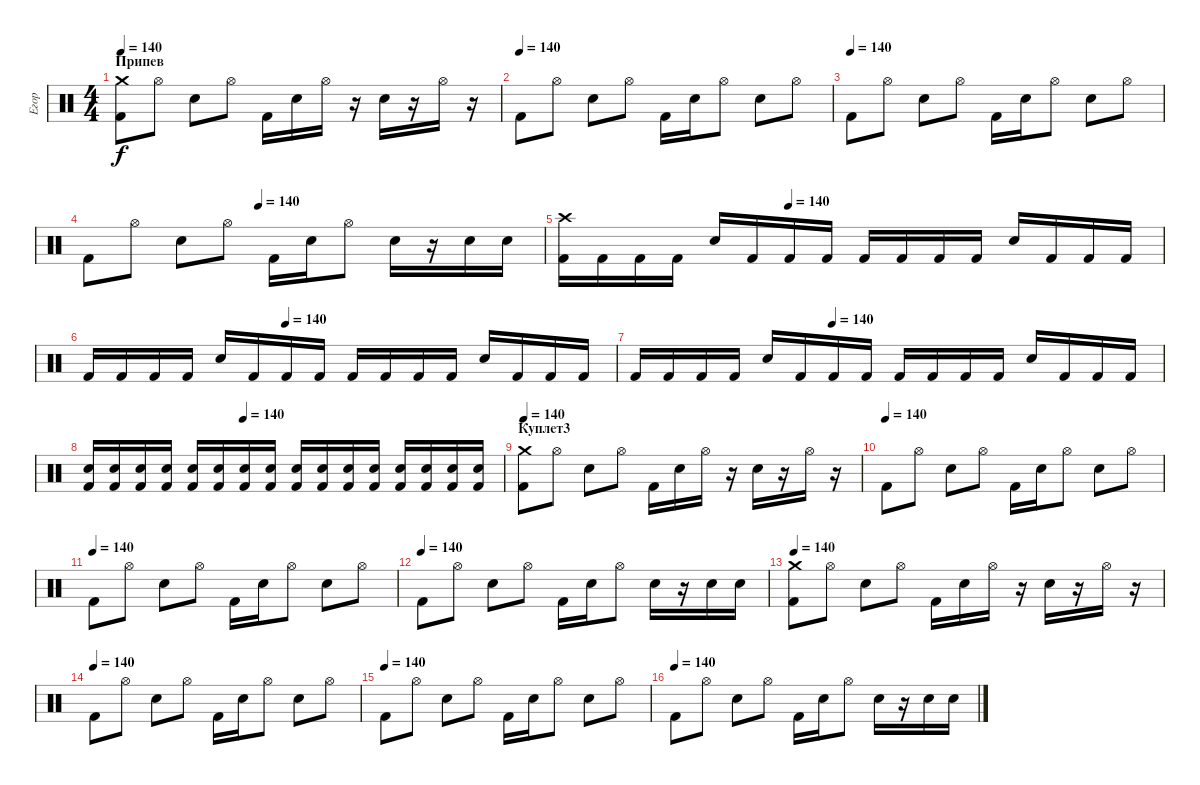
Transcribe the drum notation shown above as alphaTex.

\track ("Егор" "Егор") {instrument percussion}
\staff {score}
\articulation defaults
\ts (4 4)
\section ("" "Припев")
\tempo 140
\clef neutral
\ks c
("Crash medium (hit)" "Kick (hit) 2").8{dy f} "Hi-Hat (open)".8 "Snare (hit) 2".8 "Hi-Hat (open)".8 "Kick (hit) 2".16 "Snare (hit) 2".16 "Hi-Hat (open)".16 r.16 "Snare (hit) 2".16 r.16 "Hi-Hat (open)".16 r.16 |
\tempo (140)
"Kick (hit) 2".8 "Hi-Hat (open)".8 "Snare (hit) 2".8 "Hi-Hat (open)".8 "Kick (hit) 2".16 "Snare (hit) 2".16 "Hi-Hat (open)".8 "Snare (hit) 2".8 "Hi-Hat (open)".8 |
\tempo (140)
"Kick (hit) 2".8 "Hi-Hat (open)".8 "Snare (hit) 2".8 "Hi-Hat (open)".8 "Kick (hit) 2".16 "Snare (hit) 2".16 "Hi-Hat (open)".8 "Snare (hit) 2".8 "Hi-Hat (open)".8 |
\tempo (140 0.375)
"Kick (hit) 2".8 "Hi-Hat (open)".8 "Snare (hit) 2".8 "Hi-Hat (open)".8 "Kick (hit) 2".16 "Snare (hit) 2".16 "Hi-Hat (open)".8 "Snare (hit) 2".16 r.16 "Snare (hit) 2".16 "Snare (hit) 2".16 |
\tempo (140 0.375)
("Crash high (hit)" "Kick (hit) 2").16 "Kick (hit) 2".16 "Kick (hit) 2".16 "Kick (hit) 2".16 "Snare (hit) 2".16 "Kick (hit) 2".16 "Kick (hit) 2".16 "Kick (hit) 2".16 "Kick (hit) 2".16 "Kick (hit) 2".16 "Kick (hit) 2".16 "Kick (hit) 2".16 "Snare (hit) 2".16 "Kick (hit) 2".16 "Kick (hit) 2".16 "Kick (hit) 2".16 |
\tempo (140 0.375)
"Kick (hit) 2".16 "Kick (hit) 2".16 "Kick (hit) 2".16 "Kick (hit) 2".16 "Snare (hit) 2".16 "Kick (hit) 2".16 "Kick (hit) 2".16 "Kick (hit) 2".16 "Kick (hit) 2".16 "Kick (hit) 2".16 "Kick (hit) 2".16 "Kick (hit) 2".16 "Snare (hit) 2".16 "Kick (hit) 2".16 "Kick (hit) 2".16 "Kick (hit) 2".16 |
\tempo (140 0.375)
"Kick (hit) 2".16 "Kick (hit) 2".16 "Kick (hit) 2".16 "Kick (hit) 2".16 "Snare (hit) 2".16 "Kick (hit) 2".16 "Kick (hit) 2".16 "Kick (hit) 2".16 "Kick (hit) 2".16 "Kick (hit) 2".16 "Kick (hit) 2".16 "Kick (hit) 2".16 "Snare (hit) 2".16 "Kick (hit) 2".16 "Kick (hit) 2".16 "Kick (hit) 2".16 |
\tempo (140 0.375)
("Kick (hit) 2" "Snare (hit) 2").16 ("Kick (hit) 2" "Snare (hit) 2").16 ("Kick (hit) 2" "Snare (hit) 2").16 ("Kick (hit) 2" "Snare (hit) 2").16 ("Kick (hit) 2" "Snare (hit) 2").16 ("Kick (hit) 2" "Snare (hit) 2").16 ("Kick (hit) 2" "Snare (hit) 2").16 ("Kick (hit) 2" "Snare (hit) 2").16 ("Kick (hit) 2" "Snare (hit) 2").16 ("Kick (hit) 2" "Snare (hit) 2").16 ("Kick (hit) 2" "Snare (hit) 2").16 ("Kick (hit) 2" "Snare (hit) 2").16 ("Kick (hit) 2" "Snare (hit) 2").16 ("Kick (hit) 2" "Snare (hit) 2").16 ("Kick (hit) 2" "Snare (hit) 2").16 ("Kick (hit) 2" "Snare (hit) 2").16 |
\section ("" "Куплет3")
\tempo 140
("Crash medium (hit)" "Kick (hit) 2").8 "Hi-Hat (open)".8 "Snare (hit) 2".8 "Hi-Hat (open)".8 "Kick (hit) 2".16 "Snare (hit) 2".16 "Hi-Hat (open)".16 r.16 "Snare (hit) 2".16 r.16 "Hi-Hat (open)".16 r.16 |
\tempo (140)
"Kick (hit) 2".8 "Hi-Hat (open)".8 "Snare (hit) 2".8 "Hi-Hat (open)".8 "Kick (hit) 2".16 "Snare (hit) 2".16 "Hi-Hat (open)".8 "Snare (hit) 2".8 "Hi-Hat (open)".8 |
\tempo (140)
"Kick (hit) 2".8 "Hi-Hat (open)".8 "Snare (hit) 2".8 "Hi-Hat (open)".8 "Kick (hit) 2".16 "Snare (hit) 2".16 "Hi-Hat (open)".8 "Snare (hit) 2".8 "Hi-Hat (open)".8 |
\tempo (140)
"Kick (hit) 2".8 "Hi-Hat (open)".8 "Snare (hit) 2".8 "Hi-Hat (open)".8 "Kick (hit) 2".16 "Snare (hit) 2".16 "Hi-Hat (open)".8 "Snare (hit) 2".16 r.16 "Snare (hit) 2".16 "Snare (hit) 2".16 |
\tempo 140
("Crash medium (hit)" "Kick (hit) 2").8 "Hi-Hat (open)".8 "Snare (hit) 2".8 "Hi-Hat (open)".8 "Kick (hit) 2".16 "Snare (hit) 2".16 "Hi-Hat (open)".16 r.16 "Snare (hit) 2".16 r.16 "Hi-Hat (open)".16 r.16 |
\tempo (140)
"Kick (hit) 2".8 "Hi-Hat (open)".8 "Snare (hit) 2".8 "Hi-Hat (open)".8 "Kick (hit) 2".16 "Snare (hit) 2".16 "Hi-Hat (open)".8 "Snare (hit) 2".8 "Hi-Hat (open)".8 |
\tempo (140)
"Kick (hit) 2".8 "Hi-Hat (open)".8 "Snare (hit) 2".8 "Hi-Hat (open)".8 "Kick (hit) 2".16 "Snare (hit) 2".16 "Hi-Hat (open)".8 "Snare (hit) 2".8 "Hi-Hat (open)".8 |
\tempo (140)
"Kick (hit) 2".8 "Hi-Hat (open)".8 "Snare (hit) 2".8 "Hi-Hat (open)".8 "Kick (hit) 2".16 "Snare (hit) 2".16 "Hi-Hat (open)".8 "Snare (hit) 2".16 r.16 "Snare (hit) 2".16 "Snare (hit) 2".16
